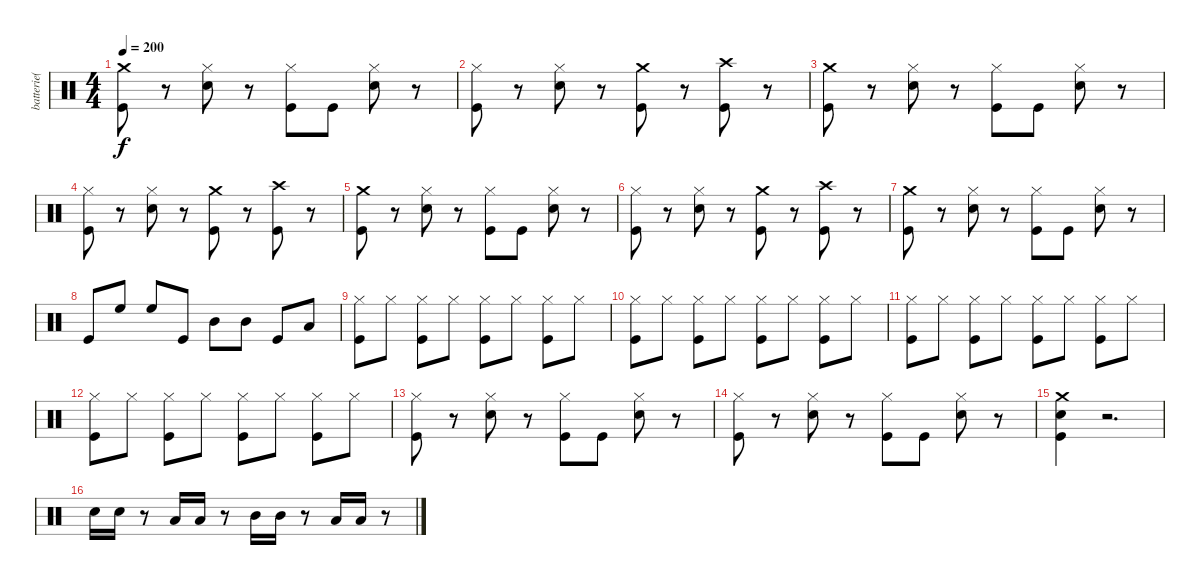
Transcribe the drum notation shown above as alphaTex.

\track ("batterie( Meggers )" "batterie( ") {instrument percussion}
\staff {score}
\articulation defaults
\ts (4 4)
\tempo 200
\clef neutral
\ks c
("Crash medium (hit)" "Kick (hit)").8{dy f} r.8 ("Hi-Hat (closed)" "Snare (hit) 2").8 r.8 ("Hi-Hat (closed)" "Kick (hit)").8 "Kick (hit)".8 ("Hi-Hat (closed)" "Snare (hit) 2").8 r.8 |
("Hi-Hat (closed)" "Kick (hit)").8 r.8 ("Hi-Hat (closed)" "Snare (hit) 2").8 r.8 ("Crash medium (hit)" "Kick (hit)").8 r.8 ("Crash high (hit)" "Kick (hit)").8 r.8 |
("Crash medium (hit)" "Kick (hit)").8 r.8 ("Hi-Hat (closed)" "Snare (hit) 2").8 r.8 ("Hi-Hat (closed)" "Kick (hit)").8 "Kick (hit)".8 ("Hi-Hat (closed)" "Snare (hit) 2").8 r.8 |
("Hi-Hat (closed)" "Kick (hit)").8 r.8 ("Hi-Hat (closed)" "Snare (hit) 2").8 r.8 ("Crash medium (hit)" "Kick (hit)").8 r.8 ("Crash high (hit)" "Kick (hit)").8 r.8 |
("Crash medium (hit)" "Kick (hit)").8 r.8 ("Hi-Hat (closed)" "Snare (hit) 2").8 r.8 ("Hi-Hat (closed)" "Kick (hit)").8 "Kick (hit)".8 ("Hi-Hat (closed)" "Snare (hit) 2").8 r.8 |
("Hi-Hat (closed)" "Kick (hit)").8 r.8 ("Hi-Hat (closed)" "Snare (hit) 2").8 r.8 ("Crash medium (hit)" "Kick (hit)").8 r.8 ("Crash high (hit)" "Kick (hit)").8 r.8 |
("Crash medium (hit)" "Kick (hit)").8 r.8 ("Hi-Hat (closed)" "Snare (hit) 2").8 r.8 ("Hi-Hat (closed)" "Kick (hit)").8 "Kick (hit)".8 ("Hi-Hat (closed)" "Snare (hit) 2").8 r.8 |
"Kick (hit)".8 "High Floor Tom (hit)".8 "High Floor Tom (hit)".8 "Kick (hit)".8 "Mid Tom (hit)".8 "Mid Tom (hit)".8 "Kick (hit)".8 "Low Tom (hit)".8 |
("Hi-Hat (closed)" "Kick (hit)").8 "Hi-Hat (closed)".8 ("Hi-Hat (closed)" "Kick (hit)").8 "Hi-Hat (closed)".8 ("Hi-Hat (closed)" "Kick (hit)").8 "Hi-Hat (closed)".8 ("Hi-Hat (closed)" "Kick (hit)").8 "Hi-Hat (closed)".8 |
("Hi-Hat (closed)" "Kick (hit)").8 "Hi-Hat (closed)".8 ("Hi-Hat (closed)" "Kick (hit)").8 "Hi-Hat (closed)".8 ("Hi-Hat (closed)" "Kick (hit)").8 "Hi-Hat (closed)".8 ("Hi-Hat (closed)" "Kick (hit)").8 "Hi-Hat (closed)".8 |
("Hi-Hat (closed)" "Kick (hit)").8 "Hi-Hat (closed)".8 ("Hi-Hat (closed)" "Kick (hit)").8 "Hi-Hat (closed)".8 ("Hi-Hat (closed)" "Kick (hit)").8 "Hi-Hat (closed)".8 ("Hi-Hat (closed)" "Kick (hit)").8 "Hi-Hat (closed)".8 |
("Hi-Hat (closed)" "Kick (hit)").8 "Hi-Hat (closed)".8 ("Hi-Hat (closed)" "Kick (hit)").8 "Hi-Hat (closed)".8 ("Hi-Hat (closed)" "Kick (hit)").8 "Hi-Hat (closed)".8 ("Hi-Hat (closed)" "Kick (hit)").8 "Hi-Hat (closed)".8 |
("Hi-Hat (closed)" "Kick (hit)").8 r.8 ("Hi-Hat (closed)" "Snare (hit) 2").8 r.8 ("Hi-Hat (closed)" "Kick (hit)").8 "Kick (hit)".8 ("Hi-Hat (closed)" "Snare (hit) 2").8 r.8 |
("Hi-Hat (closed)" "Kick (hit)").8 r.8 ("Hi-Hat (closed)" "Snare (hit) 2").8 r.8 ("Hi-Hat (closed)" "Kick (hit)").8 "Kick (hit)".8 ("Hi-Hat (closed)" "Snare (hit) 2").8 r.8 |
("Crash medium (hit)" "Snare (hit) 2" "Kick (hit)").4 r.2{d} |
"Snare (hit) 2".16 "Snare (hit) 2".16 r.8 "Low Tom (hit)".16 "Low Tom (hit)".16 r.8 "Mid Tom (hit)".16 "Mid Tom (hit)".16 r.8 "Low Floor Tom (hit)".16 "Low Floor Tom (hit)".16 r.8
